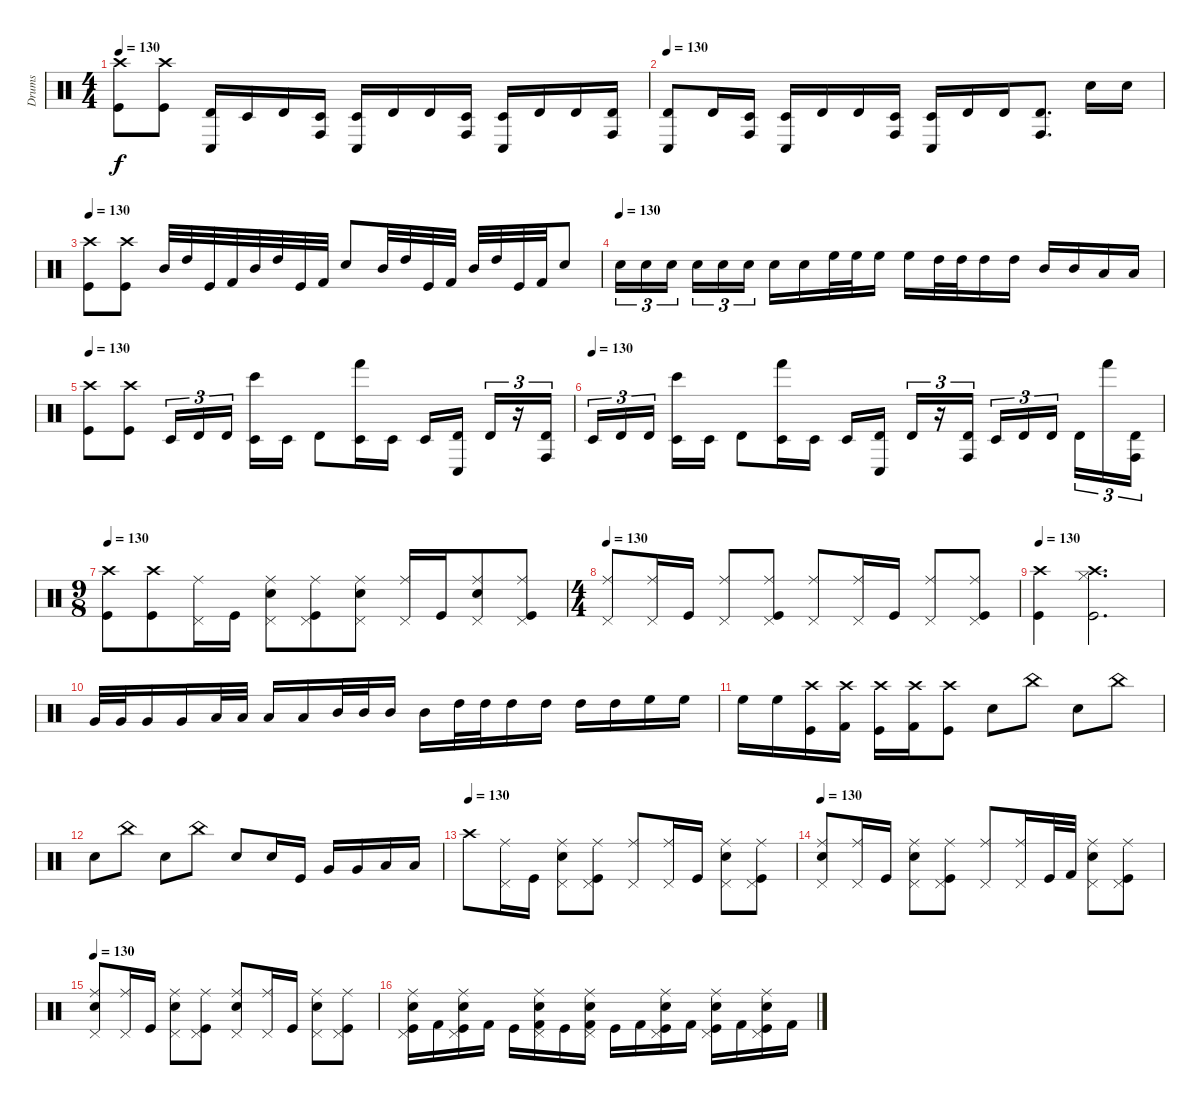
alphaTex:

\track ("Drums" "Drums") {instrument percussion}
\staff {score}
\articulation defaults
\ts (4 4)
\tempo 130
\clef neutral
\ks c
("Crash high (hit)" "Kick (hit)").8{dy f} ("Crash high (hit)" "Kick (hit)").8 ("Conga low (hit)" "Timbale high (hit)").16 "Timbale low (hit)".16 "Timbale high (hit)".16 ("Conga high (hit)" "Timbale low (hit)").16 ("Conga low (hit)" "Timbale low (hit)").16 "Timbale high (hit)".16 "Timbale high (hit)".16 ("Conga high (hit)" "Timbale low (hit)").16 ("Conga low (hit)" "Timbale low (hit)").16 "Timbale high (hit)".16 "Timbale high (hit)".16 ("Conga high (hit)" "Timbale high (hit)").16 |
\tempo 130
("Conga low (hit)" "Timbale high (hit)").8 "Timbale high (hit)".16 ("Conga high (hit)" "Timbale low (hit)").16 ("Conga low (hit)" "Timbale low (hit)").16 "Timbale high (hit)".16 "Timbale high (hit)".16 ("Conga high (hit)" "Timbale low (hit)").16 ("Conga low (hit)" "Timbale low (hit)").16 "Timbale high (hit)".16 "Timbale high (hit)".16 ("Conga high (hit)" "Timbale high (hit)").8{d} "Snare (hit) 2".16 "Snare (hit) 2".16 |
\tempo 130
("Crash high (hit)" "Kick (hit)").8 ("Crash high (hit)" "Kick (hit)").8 "Mid Tom (hit)".32 "High Tom (hit)".32 "Kick (hit)".32 "Kick (hit) 2".32 "Mid Tom (hit)".32 "High Tom (hit)".32 "Kick (hit)".32 "Kick (hit) 2".32 "Hand Clap (hit)".8 "Mid Tom (hit)".32 "High Tom (hit)".32 "Kick (hit)".32 "Kick (hit) 2".32 "Mid Tom (hit)".32 "High Tom (hit)".32 "Kick (hit)".32 "Kick (hit) 2".32 "Snare (hit) 2".8 |
\tempo (130)
"Snare (hit) 2".16{tu (3 2)} "Snare (hit) 2".16{tu (3 2)} "Snare (hit) 2".16{tu (3 2)} "Snare (hit) 2".16{tu (3 2)} "Snare (hit) 2".16{tu (3 2)} "Snare (hit) 2".16{tu (3 2)} "Snare (hit) 2".16 "Snare (hit) 2".16 "High Floor Tom (hit)".32 "High Floor Tom (hit)".32 "High Floor Tom (hit)".16 "High Floor Tom (hit)".16 "High Tom (hit)".32 "High Tom (hit)".32 "High Tom (hit)".16 "High Tom (hit)".16 "Mid Tom (hit)".16 "Mid Tom (hit)".16 "Low Tom (hit)".16 "Low Tom (hit)".16 |
\tempo 130
("Crash high (hit)" "Kick (hit)").8 ("Crash high (hit)" "Kick (hit)").8 "Timbale low (hit)".16{tu (3 2)} "Timbale high (hit)".16{tu (3 2)} "Timbale high (hit)".16{tu (3 2)} ("Bongo High (hit)" "Timbale low (hit)").16 "Timbale low (hit)".16 "Timbale high (hit)".8 ("Hand (hit)" "Timbale low (hit)").16 "Timbale low (hit)".16 "Timbale low (hit)".16 ("Conga low (hit)" "Timbale high (hit)").16 "Timbale high (hit)".16{tu (3 2)} r.16{tu (3 2)} ("Conga high (hit)" "Timbale high (hit)").16{tu (3 2)} |
\tempo (130)
"Timbale low (hit)".16{tu (3 2)} "Timbale high (hit)".16{tu (3 2)} "Timbale high (hit)".16{tu (3 2)} ("Bongo High (hit)" "Timbale low (hit)").16 "Timbale low (hit)".16 "Timbale high (hit)".8 ("Hand (hit)" "Timbale low (hit)").16 "Timbale low (hit)".16 "Timbale low (hit)".16 ("Conga low (hit)" "Timbale high (hit)").16 "Timbale high (hit)".16{tu (3 2)} r.16{tu (3 2)} ("Conga high (hit)" "Timbale high (hit)").16{tu (3 2)} "Timbale low (hit)".16{tu (3 2)} "Timbale high (hit)".16{tu (3 2)} "Timbale high (hit)".16{tu (3 2)} "Timbale high (hit)".16{tu (3 2)} "Hand (hit)".16{tu (3 2)} ("Conga high (hit)" "Timbale high (hit)").16{tu (3 2)} |
\ts (9 8)
\tempo 130
("Crash high (hit)" "Kick (hit)").8 ("Crash high (hit)" "Kick (hit)").8 ("Pedal Hi-Hat (hit)" "Ride (middle)").16 "Kick (hit)".16 ("Pedal Hi-Hat (hit)" "Ride (middle)" "Snare (hit) 2").8 ("Pedal Hi-Hat (hit)" "Ride (middle)" "Kick (hit)").8 ("Pedal Hi-Hat (hit)" "Ride (middle)" "Snare (hit) 2").8 ("Pedal Hi-Hat (hit)" "Ride (middle)").16 "Kick (hit)".16 ("Pedal Hi-Hat (hit)" "Ride (middle)" "Snare (hit) 2").8 ("Pedal Hi-Hat (hit)" "Ride (middle)" "Kick (hit)").8 |
\ts (4 4)
\tempo 130
("Pedal Hi-Hat (hit)" "Ride (middle)").8 ("Pedal Hi-Hat (hit)" "Ride (middle)").16 "Kick (hit)".16 ("Pedal Hi-Hat (hit)" "Ride (middle)").8 ("Pedal Hi-Hat (hit)" "Ride (middle)" "Kick (hit)").8 ("Pedal Hi-Hat (hit)" "Ride (middle)").8 ("Pedal Hi-Hat (hit)" "Ride (middle)").16 "Kick (hit)".16 ("Pedal Hi-Hat (hit)" "Ride (middle)").8 ("Pedal Hi-Hat (hit)" "Ride (middle)" "Kick (hit)").8 |
\tempo 130
("Crash high (hit)" "Kick (hit)").4 ("Crash high (hit)" "Hi-Hat (closed)" "Kick (hit)").2{d} |
"Very Low Tom (hit)".32 "Very Low Tom (hit)".32 "Very Low Tom (hit)".16 "Very Low Tom (hit)".16 "Low Tom (hit)".32 "Low Tom (hit)".32 "Low Tom (hit)".16 "Low Tom (hit)".16 "Mid Tom (hit)".32 "Mid Tom (hit)".32 "Mid Tom (hit)".16 "Mid Tom (hit)".16 "High Tom (hit)".32 "High Tom (hit)".32 "High Tom (hit)".16 "High Tom (hit)".16 "High Tom (hit)".16 "High Tom (hit)".16 "High Floor Tom (hit)".16 "High Floor Tom (hit)".16 |
"High Floor Tom (hit)".16 "High Floor Tom (hit)".16 ("Kick (hit)" "Crash high (hit)").16 ("Kick (hit) 2" "Crash high (hit)").16 ("Kick (hit)" "Crash high (hit)").16 ("Kick (hit) 2" "Crash high (hit)").16 ("Kick (hit)" "Crash high (hit)").8 "Snare (hit) 2".8 "China (hit)".8 "Snare (hit) 2".8 "China (hit)".8 |
"Snare (hit) 2".8 "China (hit)".8 "Snare (hit) 2".8 "China (hit)".8 "Snare (hit) 2".8 "Snare (hit) 2".16 "Kick (hit)".16 "Very Low Tom (hit)".16 "Very Low Tom (hit)".16 "Low Tom (hit)".16 "Low Tom (hit)".16 |
\tempo (130)
"Crash high (hit)".8 ("Pedal Hi-Hat (hit)" "Ride (middle)").16 "Kick (hit)".16 ("Pedal Hi-Hat (hit)" "Ride (middle)" "Snare (hit) 2").8 ("Pedal Hi-Hat (hit)" "Ride (middle)" "Kick (hit)").8 ("Pedal Hi-Hat (hit)" "Ride (middle)").8 ("Pedal Hi-Hat (hit)" "Ride (middle)").16 "Kick (hit)".16 ("Pedal Hi-Hat (hit)" "Ride (middle)" "Snare (hit) 2").8 ("Pedal Hi-Hat (hit)" "Ride (middle)" "Kick (hit)").8 |
\tempo 130
("Pedal Hi-Hat (hit)" "Ride (middle)" "Snare (hit) 2").8 ("Pedal Hi-Hat (hit)" "Ride (middle)").16 "Kick (hit)".16 ("Pedal Hi-Hat (hit)" "Ride (middle)" "Snare (hit) 2").8 ("Pedal Hi-Hat (hit)" "Ride (middle)" "Kick (hit)").8 ("Pedal Hi-Hat (hit)" "Ride (middle)").8 ("Pedal Hi-Hat (hit)" "Ride (middle)").16 "Kick (hit)".32 "Kick (hit) 2".32 ("Pedal Hi-Hat (hit)" "Ride (middle)" "Snare (hit) 2").8 ("Pedal Hi-Hat (hit)" "Ride (middle)" "Kick (hit)").8 |
\tempo 130
("Pedal Hi-Hat (hit)" "Ride (middle)" "Snare (hit) 2").8 ("Pedal Hi-Hat (hit)" "Ride (middle)").16 "Kick (hit)".16 ("Pedal Hi-Hat (hit)" "Ride (middle)" "Snare (hit) 2").8 ("Pedal Hi-Hat (hit)" "Ride (middle)" "Kick (hit)").8 ("Pedal Hi-Hat (hit)" "Ride (middle)" "Snare (hit) 2").8 ("Pedal Hi-Hat (hit)" "Ride (middle)").16 "Kick (hit)".16 ("Pedal Hi-Hat (hit)" "Ride (middle)" "Snare (hit) 2").8 ("Pedal Hi-Hat (hit)" "Ride (middle)" "Kick (hit)").8 |
("Snare (hit) 2" "Pedal Hi-Hat (hit)" "Ride (middle)" "Kick (hit)").16 "Kick (hit) 2".16 ("Snare (hit) 2" "Pedal Hi-Hat (hit)" "Ride (middle)" "Kick (hit)").16 "Kick (hit) 2".16 "Kick (hit)".16 ("Snare (hit) 2" "Pedal Hi-Hat (hit)" "Ride (middle)" "Kick (hit) 2").16 "Kick (hit)".16 ("Snare (hit) 2" "Pedal Hi-Hat (hit)" "Ride (middle)" "Kick (hit) 2").16 "Kick (hit)".16 "Kick (hit) 2".16 ("Snare (hit) 2" "Pedal Hi-Hat (hit)" "Ride (middle)" "Kick (hit)").16 "Kick (hit) 2".16 ("Snare (hit) 2" "Pedal Hi-Hat (hit)" "Ride (middle)" "Kick (hit)").16 "Kick (hit) 2".16 ("Snare (hit) 2" "Pedal Hi-Hat (hit)" "Ride (middle)" "Kick (hit)").16 "Kick (hit) 2".16
